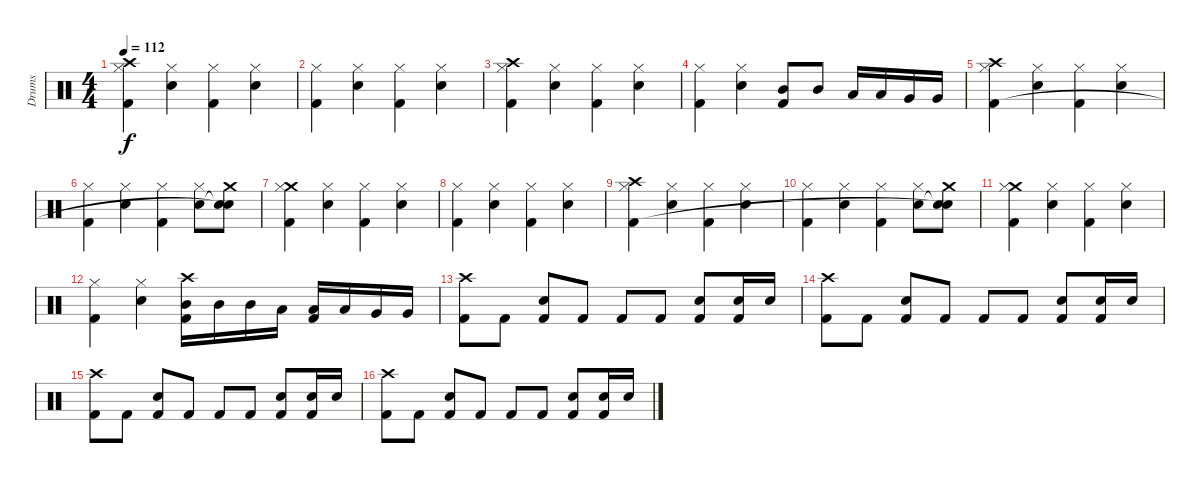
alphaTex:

\track ("Drums" "Drums") {instrument percussion}
\staff {score}
\articulation defaults
\ts (4 4)
\tempo 112
\clef neutral
\ks c
("Crash high (hit)" "Hi-Hat (closed)" "Kick (hit) 2").4{dy f} ("Hi-Hat (closed)" "Snare (hit) 2").4 ("Hi-Hat (closed)" "Kick (hit) 2").4 ("Hi-Hat (closed)" "Snare (hit) 2").4 |
("Hi-Hat (closed)" "Kick (hit) 2").4 ("Hi-Hat (closed)" "Snare (hit) 2").4 ("Hi-Hat (closed)" "Kick (hit) 2").4 ("Hi-Hat (closed)" "Snare (hit) 2").4 |
("Crash high (hit)" "Hi-Hat (closed)" "Kick (hit) 2").4 ("Hi-Hat (closed)" "Snare (hit) 2").4 ("Hi-Hat (closed)" "Kick (hit) 2").4 ("Hi-Hat (closed)" "Snare (hit) 2").4 |
("Hi-Hat (closed)" "Kick (hit) 2").4 ("Hi-Hat (closed)" "Snare (hit) 2").4 ("Mid Tom (hit)" "Kick (hit) 2").8 "Mid Tom (hit)".8 "Low Tom (hit)".16 "Low Tom (hit)".16 "Very Low Tom (hit)".16 "Very Low Tom (hit)".16 |
("Crash high (hit)" "Hi-Hat (closed)" "Kick (hit) 2").4 ("Hi-Hat (closed)" "Snare (hit) 2").4 ("Hi-Hat (closed)" "Kick (hit) 2").4 ("Hi-Hat (closed)" "Snare (hit) 2").4 |
("Hi-Hat (closed)" "Kick (hit) 2").4 ("Hi-Hat (closed)" "Snare (hit) 2").4 ("Hi-Hat (closed)" "Kick (hit) 2").4 ("Hi-Hat (closed)" "Snare (hit) 2").8 ("Crash medium (hit)" "Snare (hit)"{t} "Snare (hit)"{t}).8 |
("Crash medium (hit)" "Hi-Hat (closed)" "Kick (hit) 2").4 ("Hi-Hat (closed)" "Snare (hit) 2").4 ("Hi-Hat (closed)" "Kick (hit) 2").4 ("Hi-Hat (closed)" "Snare (hit) 2").4 |
("Hi-Hat (closed)" "Kick (hit) 2").4 ("Hi-Hat (closed)" "Snare (hit) 2").4 ("Hi-Hat (closed)" "Kick (hit) 2").4 ("Hi-Hat (closed)" "Snare (hit) 2").4 |
("Crash high (hit)" "Hi-Hat (closed)" "Kick (hit) 2").4 ("Hi-Hat (closed)" "Snare (hit) 2").4 ("Hi-Hat (closed)" "Kick (hit) 2").4 ("Hi-Hat (closed)" "Snare (hit) 2").4 |
("Hi-Hat (closed)" "Kick (hit) 2").4 ("Hi-Hat (closed)" "Snare (hit) 2").4 ("Hi-Hat (closed)" "Kick (hit) 2").4 ("Hi-Hat (closed)" "Snare (hit) 2").8 ("Crash medium (hit)" "Snare (hit)"{t} "Snare (hit)"{t}).8 |
("Crash medium (hit)" "Hi-Hat (closed)" "Kick (hit) 2").4 ("Hi-Hat (closed)" "Snare (hit) 2").4 ("Hi-Hat (closed)" "Kick (hit) 2").4 ("Hi-Hat (closed)" "Snare (hit) 2").4 |
("Hi-Hat (closed)" "Kick (hit) 2").4 ("Hi-Hat (closed)" "Snare (hit) 2").4 ("Crash high (hit)" "Mid Tom (hit)" "Kick (hit) 2").16 "Mid Tom (hit)".16 "Mid Tom (hit)".16 "Low Tom (hit)".16 ("Low Tom (hit)" "Kick (hit) 2").16 "Low Tom (hit)".16 "Very Low Tom (hit)".16 "Very Low Tom (hit)".16 |
("Crash high (hit)" "Kick (hit) 2").8 "Kick (hit) 2".8 ("Snare (hit) 2" "Kick (hit) 2").8 "Kick (hit) 2".8 "Kick (hit) 2".8 "Kick (hit) 2".8 ("Snare (hit) 2" "Kick (hit) 2").8 ("Snare (hit) 2" "Kick (hit) 2").16 "Snare (hit) 2".16 |
("Crash high (hit)" "Kick (hit) 2").8 "Kick (hit) 2".8 ("Snare (hit) 2" "Kick (hit) 2").8 "Kick (hit) 2".8 "Kick (hit) 2".8 "Kick (hit) 2".8 ("Snare (hit) 2" "Kick (hit) 2").8 ("Snare (hit) 2" "Kick (hit) 2").16 "Snare (hit) 2".16 |
("Crash high (hit)" "Kick (hit) 2").8 "Kick (hit) 2".8 ("Snare (hit) 2" "Kick (hit) 2").8 "Kick (hit) 2".8 "Kick (hit) 2".8 "Kick (hit) 2".8 ("Snare (hit) 2" "Kick (hit) 2").8 ("Snare (hit) 2" "Kick (hit) 2").16 "Snare (hit) 2".16 |
("Crash high (hit)" "Kick (hit) 2").8 "Kick (hit) 2".8 ("Snare (hit) 2" "Kick (hit) 2").8 "Kick (hit) 2".8 "Kick (hit) 2".8 "Kick (hit) 2".8 ("Snare (hit) 2" "Kick (hit) 2").8 ("Snare (hit) 2" "Kick (hit) 2").16 "Snare (hit) 2".16
